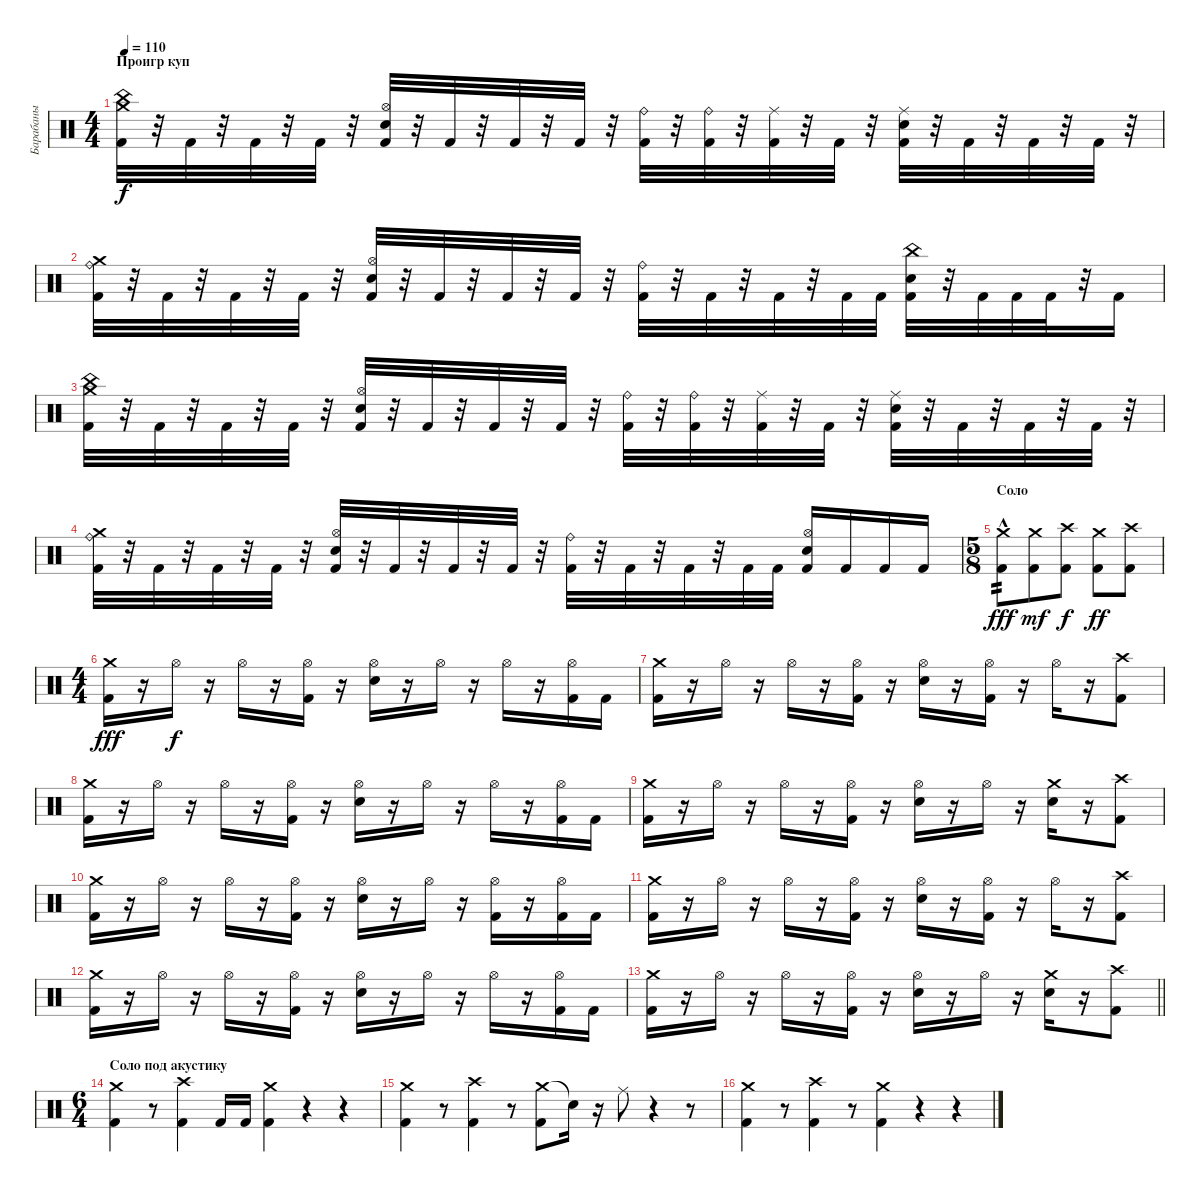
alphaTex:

\track ("Барабаны" "Барабаны") {instrument percussion}
\staff {score}
\articulation defaults
\ts (4 4)
\section ("" "Проигр куп")
\tempo 110
\clef neutral
\ks c
("Crash medium (hit)" "China (hit)" "Kick (hit) 2").32{dy f} r.32 "Kick (hit) 2".32 r.32 "Kick (hit) 2".32 r.32 "Kick (hit) 2".32 r.32 ("Hi-Hat (open)" "Snare (hit) 2" "Kick (hit) 2").32 r.32 "Kick (hit) 2".32 r.32 "Kick (hit) 2".32 r.32 "Kick (hit) 2".32 r.32 ("Ride (bell)" "Kick (hit) 2").32 r.32 ("Ride (bell)" "Kick (hit) 2").32 r.32 ("Ride (middle)" "Kick (hit) 2").32 r.32 "Kick (hit) 2".32 r.32 ("Ride (middle)" "Snare (hit) 2" "Kick (hit) 2").32 r.32 "Kick (hit) 2".32 r.32 "Kick (hit) 2".32 r.32 "Kick (hit) 2".32 r.32 |
("Crash medium (hit)" "Ride (bell)" "Kick (hit) 2").32 r.32 "Kick (hit) 2".32 r.32 "Kick (hit) 2".32 r.32 "Kick (hit) 2".32 r.32 ("Hi-Hat (open)" "Snare (hit) 2" "Kick (hit) 2").32 r.32 "Kick (hit) 2".32 r.32 "Kick (hit) 2".32 r.32 "Kick (hit) 2".32 r.32 ("Ride (bell)" "Kick (hit) 2").32 r.32 "Kick (hit) 2".32 r.32 "Kick (hit) 2".32 r.32 "Kick (hit) 2".32 "Kick (hit) 2".32 ("China (hit)" "Snare (hit) 2" "Kick (hit) 2").32 r.32 "Kick (hit) 2".32 "Kick (hit) 2".32 "Kick (hit) 2".32 r.32 "Kick (hit) 2".16 |
("Crash medium (hit)" "China (hit)" "Kick (hit) 2").32 r.32 "Kick (hit) 2".32 r.32 "Kick (hit) 2".32 r.32 "Kick (hit) 2".32 r.32 ("Hi-Hat (open)" "Snare (hit) 2" "Kick (hit) 2").32 r.32 "Kick (hit) 2".32 r.32 "Kick (hit) 2".32 r.32 "Kick (hit) 2".32 r.32 ("Ride (bell)" "Kick (hit) 2").32 r.32 ("Ride (bell)" "Kick (hit) 2").32 r.32 ("Ride (middle)" "Kick (hit) 2").32 r.32 "Kick (hit) 2".32 r.32 ("Ride (middle)" "Snare (hit) 2" "Kick (hit) 2").32 r.32 "Kick (hit) 2".32 r.32 "Kick (hit) 2".32 r.32 "Kick (hit) 2".32 r.32 |
("Crash medium (hit)" "Ride (bell)" "Kick (hit) 2").32 r.32 "Kick (hit) 2".32 r.32 "Kick (hit) 2".32 r.32 "Kick (hit) 2".32 r.32 ("Hi-Hat (open)" "Snare (hit) 2" "Kick (hit) 2").32 r.32 "Kick (hit) 2".32 r.32 "Kick (hit) 2".32 r.32 "Kick (hit) 2".32 r.32 ("Ride (bell)" "Kick (hit) 2").32 r.32 "Kick (hit) 2".32 r.32 "Kick (hit) 2".32 r.32 "Kick (hit) 2".32 "Kick (hit) 2".32 ("Hi-Hat (open)" "Snare (hit) 2" "Kick (hit) 2").16 "Kick (hit) 2".16 "Kick (hit) 2".16 "Kick (hit) 2".16 |
\ts (5 8)
\section ("" "Соло")
("Crash medium (hit)" "Kick (hit) 2"{hac}).8{tp 2 dy fff} ("Crash medium (hit)" "Kick (hit) 2").8{dy mf} ("Crash high (hit)" "Kick (hit) 2").8{dy f} ("Crash medium (hit)" "Kick (hit) 2").8{dy ff} ("Crash high (hit)" "Kick (hit) 2").8 |
\ts (4 4)
("Crash medium (hit)" "Kick (hit) 2").16{dy fff} r.16 "Hi-Hat (open)".16{dy f} r.16 "Hi-Hat (open)".16 r.16 ("Hi-Hat (open)" "Kick (hit) 2").16 r.16 ("Hi-Hat (open)" "Electric Snare (hit)").16 r.16 "Hi-Hat (open)".16 r.16 "Hi-Hat (open)".16 r.16 ("Hi-Hat (open)" "Kick (hit) 2").16 "Kick (hit) 2".16 |
("Crash medium (hit)" "Kick (hit) 2").16 r.16 "Hi-Hat (open)".16 r.16 "Hi-Hat (open)".16 r.16 ("Hi-Hat (open)" "Kick (hit) 2").16 r.16 ("Hi-Hat (open)" "Electric Snare (hit)").16 r.16 ("Hi-Hat (open)" "Kick (hit) 2").16 r.16 "Hi-Hat (open)".16 r.16 ("Crash high (hit)" "Kick (hit) 2").8 |
("Crash medium (hit)" "Kick (hit) 2").16 r.16 "Hi-Hat (open)".16 r.16 "Hi-Hat (open)".16 r.16 ("Hi-Hat (open)" "Kick (hit) 2").16 r.16 ("Hi-Hat (open)" "Electric Snare (hit)").16 r.16 "Hi-Hat (open)".16 r.16 "Hi-Hat (open)".16 r.16 ("Hi-Hat (open)" "Kick (hit) 2").16 "Kick (hit) 2".16 |
("Crash medium (hit)" "Kick (hit) 2").16 r.16 "Hi-Hat (open)".16 r.16 "Hi-Hat (open)".16 r.16 ("Hi-Hat (open)" "Kick (hit) 2").16 r.16 ("Hi-Hat (open)" "Electric Snare (hit)").16 r.16 "Hi-Hat (open)".16 r.16 ("Crash medium (hit)" "Electric Snare (hit)").16 r.16 ("Crash high (hit)" "Kick (hit) 2").8 |
("Crash medium (hit)" "Kick (hit) 2").16 r.16 "Hi-Hat (open)".16 r.16 "Hi-Hat (open)".16 r.16 ("Hi-Hat (open)" "Kick (hit) 2").16 r.16 ("Hi-Hat (open)" "Electric Snare (hit)").16 r.16 "Hi-Hat (open)".16 r.16 ("Hi-Hat (open)" "Kick (hit) 2").16 r.16 ("Hi-Hat (open)" "Kick (hit) 2").16 "Kick (hit) 2".16 |
("Crash medium (hit)" "Kick (hit) 2").16 r.16 "Hi-Hat (open)".16 r.16 "Hi-Hat (open)".16 r.16 ("Hi-Hat (open)" "Kick (hit) 2").16 r.16 ("Hi-Hat (open)" "Electric Snare (hit)").16 r.16 ("Hi-Hat (open)" "Kick (hit) 2").16 r.16 "Hi-Hat (open)".16 r.16 ("Crash high (hit)" "Kick (hit) 2").8 |
("Crash medium (hit)" "Kick (hit) 2").16 r.16 "Hi-Hat (open)".16 r.16 "Hi-Hat (open)".16 r.16 ("Hi-Hat (open)" "Kick (hit) 2").16 r.16 ("Hi-Hat (open)" "Electric Snare (hit)").16 r.16 "Hi-Hat (open)".16 r.16 "Hi-Hat (open)".16 r.16 ("Hi-Hat (open)" "Kick (hit) 2").16 "Kick (hit) 2".16 |
\barLineRight lightlight
("Crash medium (hit)" "Kick (hit) 2").16 r.16 "Hi-Hat (open)".16 r.16 "Hi-Hat (open)".16 r.16 ("Hi-Hat (open)" "Kick (hit) 2").16 r.16 ("Hi-Hat (open)" "Electric Snare (hit)").16 r.16 "Hi-Hat (open)".16 r.16 ("Crash medium (hit)" "Electric Snare (hit)").16 r.16 ("Crash high (hit)" "Kick (hit) 2").8 |
\ts (6 4)
\section ("" "Соло под акустику")
("Crash medium (hit)" "Kick (hit) 2").4 r.8 ("Crash high (hit)" "Kick (hit) 2").4 "Kick (hit) 2".16 "Kick (hit) 2".16 ("Crash medium (hit)" "Kick (hit) 2").4 r.4 r.4 |
("Crash medium (hit)" "Kick (hit) 2").4 r.8 ("Crash high (hit)" "Kick (hit) 2").4 r.8 ("Crash medium (hit)" "Kick (hit) 2").8 "Snare (hit)"{t}.16 r.16 "Ride (middle)".8 r.4 r.8 |
("Crash medium (hit)" "Kick (hit) 2").4 r.8 ("Crash high (hit)" "Kick (hit) 2").4 r.8 ("Crash medium (hit)" "Kick (hit) 2").4 r.4 r.4
